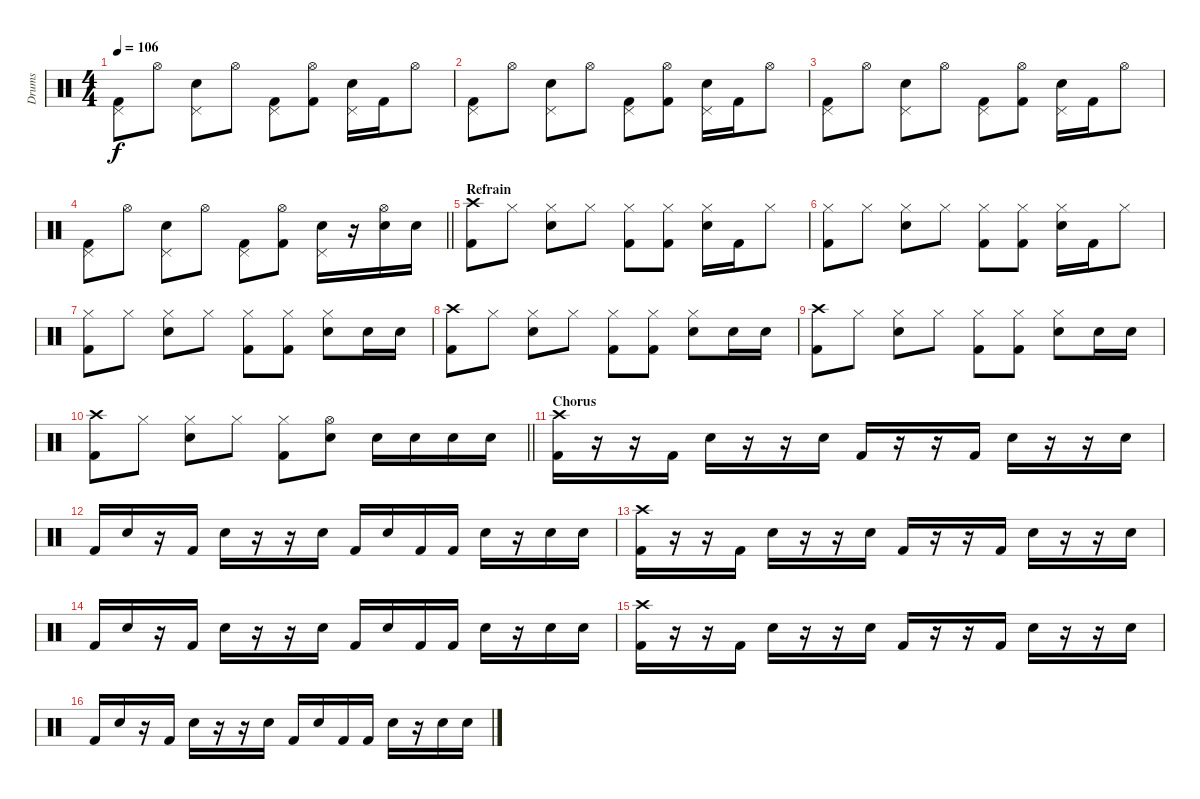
\track ("Drums" "Drums") {instrument percussion}
\staff {score}
\articulation defaults
\ts (4 4)
\tempo 106
\clef neutral
\ks c
("Pedal Hi-Hat (hit)" "Kick (hit) 2").8{dy f} "Hi-Hat (open)".8 ("Pedal Hi-Hat (hit)" "Electric Snare (hit)").8 "Hi-Hat (open)".8 ("Pedal Hi-Hat (hit)" "Kick (hit) 2").8 ("Hi-Hat (open)" "Kick (hit) 2").8 ("Pedal Hi-Hat (hit)" "Electric Snare (hit)").16 "Kick (hit) 2".16 "Hi-Hat (open)".8 |
("Pedal Hi-Hat (hit)" "Kick (hit) 2").8 "Hi-Hat (open)".8 ("Pedal Hi-Hat (hit)" "Electric Snare (hit)").8 "Hi-Hat (open)".8 ("Pedal Hi-Hat (hit)" "Kick (hit) 2").8 ("Hi-Hat (open)" "Kick (hit) 2").8 ("Pedal Hi-Hat (hit)" "Electric Snare (hit)").16 "Kick (hit) 2".16 "Hi-Hat (open)".8 |
("Pedal Hi-Hat (hit)" "Kick (hit) 2").8 "Hi-Hat (open)".8 ("Pedal Hi-Hat (hit)" "Electric Snare (hit)").8 "Hi-Hat (open)".8 ("Pedal Hi-Hat (hit)" "Kick (hit) 2").8 ("Hi-Hat (open)" "Kick (hit) 2").8 ("Pedal Hi-Hat (hit)" "Electric Snare (hit)").16 "Kick (hit) 2".16 "Hi-Hat (open)".8 |
\barLineRight lightlight
("Pedal Hi-Hat (hit)" "Kick (hit) 2").8 "Hi-Hat (open)".8 ("Pedal Hi-Hat (hit)" "Electric Snare (hit)").8 "Hi-Hat (open)".8 ("Pedal Hi-Hat (hit)" "Kick (hit) 2").8 ("Hi-Hat (open)" "Kick (hit) 2").8 ("Pedal Hi-Hat (hit)" "Electric Snare (hit)").16 r.16 ("Hi-Hat (open)" "Electric Snare (hit)").16 "Electric Snare (hit)".16 |
\section ("" "Refrain")
("Crash high (hit)" "Kick (hit) 2").8 "Hi-Hat (closed)".8 ("Hi-Hat (closed)" "Electric Snare (hit)").8 "Hi-Hat (closed)".8 ("Hi-Hat (closed)" "Kick (hit) 2").8 ("Hi-Hat (closed)" "Kick (hit) 2").8 ("Hi-Hat (closed)" "Electric Snare (hit)").16 "Kick (hit) 2".16 "Hi-Hat (closed)".8 |
("Hi-Hat (closed)" "Kick (hit) 2").8 "Hi-Hat (closed)".8 ("Hi-Hat (closed)" "Electric Snare (hit)").8 "Hi-Hat (closed)".8 ("Hi-Hat (closed)" "Kick (hit) 2").8 ("Hi-Hat (closed)" "Kick (hit) 2").8 ("Hi-Hat (closed)" "Electric Snare (hit)").16 "Kick (hit) 2".16 "Hi-Hat (closed)".8 |
("Hi-Hat (closed)" "Kick (hit) 2").8 "Hi-Hat (closed)".8 ("Hi-Hat (closed)" "Electric Snare (hit)").8 "Hi-Hat (closed)".8 ("Hi-Hat (closed)" "Kick (hit) 2").8 ("Hi-Hat (closed)" "Kick (hit) 2").8 ("Hi-Hat (closed)" "Electric Snare (hit)").8 "Electric Snare (hit)".16 "Electric Snare (hit)".16 |
("Crash high (hit)" "Kick (hit) 2").8 "Hi-Hat (closed)".8 ("Hi-Hat (closed)" "Electric Snare (hit)").8 "Hi-Hat (closed)".8 ("Hi-Hat (closed)" "Kick (hit) 2").8 ("Hi-Hat (closed)" "Kick (hit) 2").8 ("Hi-Hat (closed)" "Electric Snare (hit)").8 "Electric Snare (hit)".16 "Electric Snare (hit)".16 |
("Crash high (hit)" "Kick (hit) 2").8 "Hi-Hat (closed)".8 ("Hi-Hat (closed)" "Electric Snare (hit)").8 "Hi-Hat (closed)".8 ("Hi-Hat (closed)" "Kick (hit) 2").8 ("Hi-Hat (closed)" "Kick (hit) 2").8 ("Hi-Hat (closed)" "Electric Snare (hit)").8 "Electric Snare (hit)".16 "Electric Snare (hit)".16 |
\barLineRight lightlight
("Crash high (hit)" "Kick (hit) 2").8 "Hi-Hat (closed)".8 ("Hi-Hat (closed)" "Electric Snare (hit)").8 "Hi-Hat (closed)".8 ("Hi-Hat (closed)" "Kick (hit) 2").8 ("Hi-Hat (open)" "Electric Snare (hit)").8 "Electric Snare (hit)".16 "Electric Snare (hit)".16 "Electric Snare (hit)".16 "Electric Snare (hit)".16 |
\section ("" "Chorus")
("Crash high (hit)" "Kick (hit) 2").16 r.16 r.16 "Kick (hit) 2".16 "Electric Snare (hit)".16 r.16 r.16 "Electric Snare (hit)".16 "Kick (hit) 2".16 r.16 r.16 "Kick (hit) 2".16 "Electric Snare (hit)".16 r.16 r.16 "Electric Snare (hit)".16 |
"Kick (hit) 2".16 "Electric Snare (hit)".16 r.16 "Kick (hit) 2".16 "Electric Snare (hit)".16 r.16 r.16 "Electric Snare (hit)".16 "Kick (hit) 2".16 "Electric Snare (hit)".16 "Kick (hit) 2".16 "Kick (hit) 2".16 "Electric Snare (hit)".16 r.16 "Electric Snare (hit)".16 "Electric Snare (hit)".16 |
("Crash high (hit)" "Kick (hit) 2").16 r.16 r.16 "Kick (hit) 2".16 "Electric Snare (hit)".16 r.16 r.16 "Electric Snare (hit)".16 "Kick (hit) 2".16 r.16 r.16 "Kick (hit) 2".16 "Electric Snare (hit)".16 r.16 r.16 "Electric Snare (hit)".16 |
"Kick (hit) 2".16 "Electric Snare (hit)".16 r.16 "Kick (hit) 2".16 "Electric Snare (hit)".16 r.16 r.16 "Electric Snare (hit)".16 "Kick (hit) 2".16 "Electric Snare (hit)".16 "Kick (hit) 2".16 "Kick (hit) 2".16 "Electric Snare (hit)".16 r.16 "Electric Snare (hit)".16 "Electric Snare (hit)".16 |
("Crash high (hit)" "Kick (hit) 2").16 r.16 r.16 "Kick (hit) 2".16 "Electric Snare (hit)".16 r.16 r.16 "Electric Snare (hit)".16 "Kick (hit) 2".16 r.16 r.16 "Kick (hit) 2".16 "Electric Snare (hit)".16 r.16 r.16 "Electric Snare (hit)".16 |
"Kick (hit) 2".16 "Electric Snare (hit)".16 r.16 "Kick (hit) 2".16 "Electric Snare (hit)".16 r.16 r.16 "Electric Snare (hit)".16 "Kick (hit) 2".16 "Electric Snare (hit)".16 "Kick (hit) 2".16 "Kick (hit) 2".16 "Electric Snare (hit)".16 r.16 "Electric Snare (hit)".16 "Electric Snare (hit)".16
